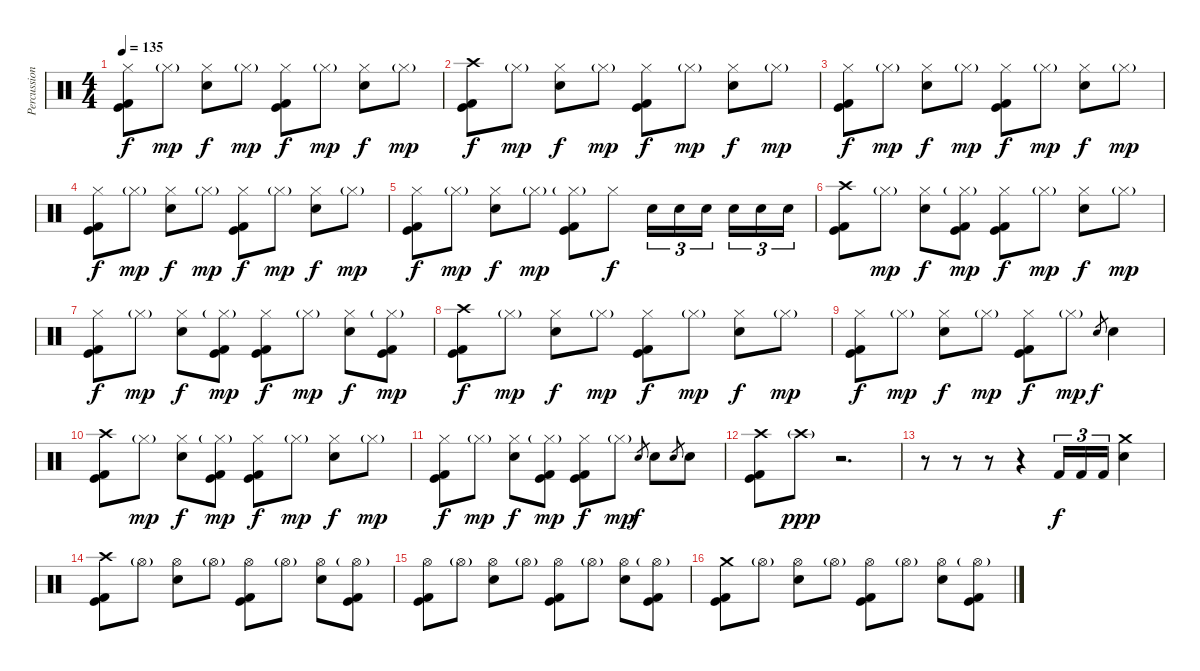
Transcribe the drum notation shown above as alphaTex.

\track ("Percussions" "Percussion") {instrument percussion}
\staff {score}
\articulation defaults
\ts (4 4)
\tempo 135
\clef neutral
\ks c
("Hi-Hat (closed)" "Kick (hit)" "Kick (hit) 2").8{dy f} "Hi-Hat (closed)"{g}.8{dy mp} ("Hi-Hat (closed)" "Electric Snare (hit)").8{dy f} "Hi-Hat (closed)"{g}.8{dy mp} ("Hi-Hat (closed)" "Kick (hit)" "Kick (hit) 2").8{dy f} "Hi-Hat (closed)"{g}.8{dy mp} ("Hi-Hat (closed)" "Electric Snare (hit)").8{dy f} "Hi-Hat (closed)"{g}.8{dy mp} |
("Crash high (hit)" "Kick (hit)" "Kick (hit) 2").8{dy f} "Hi-Hat (closed)"{g}.8{dy mp} ("Hi-Hat (closed)" "Electric Snare (hit)").8{dy f} "Hi-Hat (closed)"{g}.8{dy mp} ("Hi-Hat (closed)" "Kick (hit)" "Kick (hit) 2").8{dy f} "Hi-Hat (closed)"{g}.8{dy mp} ("Hi-Hat (closed)" "Electric Snare (hit)").8{dy f} "Hi-Hat (closed)"{g}.8{dy mp} |
("Hi-Hat (closed)" "Kick (hit)" "Kick (hit) 2").8{dy f} "Hi-Hat (closed)"{g}.8{dy mp} ("Hi-Hat (closed)" "Electric Snare (hit)").8{dy f} "Hi-Hat (closed)"{g}.8{dy mp} ("Hi-Hat (closed)" "Kick (hit)" "Kick (hit) 2").8{dy f} "Hi-Hat (closed)"{g}.8{dy mp} ("Hi-Hat (closed)" "Electric Snare (hit)").8{dy f} "Hi-Hat (closed)"{g}.8{dy mp} |
("Hi-Hat (closed)" "Kick (hit)" "Kick (hit) 2").8{dy f} "Hi-Hat (closed)"{g}.8{dy mp} ("Hi-Hat (closed)" "Electric Snare (hit)").8{dy f} "Hi-Hat (closed)"{g}.8{dy mp} ("Hi-Hat (closed)" "Kick (hit)" "Kick (hit) 2").8{dy f} "Hi-Hat (closed)"{g}.8{dy mp} ("Hi-Hat (closed)" "Electric Snare (hit)").8{dy f} "Hi-Hat (closed)"{g}.8{dy mp} |
("Hi-Hat (closed)" "Kick (hit)" "Kick (hit) 2").8{dy f} "Hi-Hat (closed)"{g}.8{dy mp} ("Hi-Hat (closed)" "Electric Snare (hit)").8{dy f} "Hi-Hat (closed)"{g}.8{dy mp} ("Hi-Hat (closed)"{g} "Kick (hit)" "Kick (hit) 2").8 "Hi-Hat (closed)".8{dy f} "Electric Snare (hit)".16{tu (3 2)} "Electric Snare (hit)".16{tu (3 2)} "Electric Snare (hit)".16{tu (3 2) beam splitsecondary} "Electric Snare (hit)".16{tu (3 2)} "Electric Snare (hit)".16{tu (3 2)} "Electric Snare (hit)".16{tu (3 2)} |
("Crash high (hit)" "Kick (hit)" "Kick (hit) 2").8 "Hi-Hat (closed)"{g}.8{dy mp} ("Hi-Hat (closed)" "Electric Snare (hit)").8{dy f} ("Hi-Hat (closed)"{g} "Kick (hit)" "Kick (hit) 2").8{dy mp} ("Hi-Hat (closed)" "Kick (hit)" "Kick (hit) 2").8{dy f} "Hi-Hat (closed)"{g}.8{dy mp} ("Hi-Hat (closed)" "Electric Snare (hit)").8{dy f} "Hi-Hat (closed)"{g}.8{dy mp} |
("Hi-Hat (closed)" "Kick (hit)" "Kick (hit) 2").8{dy f} "Hi-Hat (closed)"{g}.8{dy mp} ("Hi-Hat (closed)" "Electric Snare (hit)").8{dy f} ("Hi-Hat (closed)"{g} "Kick (hit)" "Kick (hit) 2").8{dy mp} ("Hi-Hat (closed)" "Kick (hit)" "Kick (hit) 2").8{dy f} "Hi-Hat (closed)"{g}.8{dy mp} ("Hi-Hat (closed)" "Electric Snare (hit)").8{dy f} ("Hi-Hat (closed)"{g} "Kick (hit)" "Kick (hit) 2").8{dy mp} |
("Crash high (hit)" "Kick (hit)" "Kick (hit) 2").8{dy f} "Hi-Hat (closed)"{g}.8{dy mp} ("Hi-Hat (closed)" "Electric Snare (hit)").8{dy f} "Hi-Hat (closed)"{g}.8{dy mp} ("Hi-Hat (closed)" "Kick (hit)" "Kick (hit) 2").8{dy f} "Hi-Hat (closed)"{g}.8{dy mp} ("Hi-Hat (closed)" "Electric Snare (hit)").8{dy f} "Hi-Hat (closed)"{g}.8{dy mp} |
("Hi-Hat (closed)" "Kick (hit)" "Kick (hit) 2").8{dy f} "Hi-Hat (closed)"{g}.8{dy mp} ("Hi-Hat (closed)" "Electric Snare (hit)").8{dy f} "Hi-Hat (closed)"{g}.8{dy mp} ("Hi-Hat (closed)" "Kick (hit)" "Kick (hit) 2").8{dy f} "Hi-Hat (closed)"{g}.8{dy mp} "Electric Snare (hit)".8{gr dy f} "Electric Snare (hit)".4 |
("Crash high (hit)" "Kick (hit)" "Kick (hit) 2").8 "Hi-Hat (closed)"{g}.8{dy mp} ("Hi-Hat (closed)" "Electric Snare (hit)").8{dy f} ("Hi-Hat (closed)"{g} "Kick (hit)" "Kick (hit) 2").8{dy mp} ("Hi-Hat (closed)" "Kick (hit)" "Kick (hit) 2").8{dy f} "Hi-Hat (closed)"{g}.8{dy mp} ("Hi-Hat (closed)" "Electric Snare (hit)").8{dy f} "Hi-Hat (closed)"{g}.8{dy mp} |
("Hi-Hat (closed)" "Kick (hit)" "Kick (hit) 2").8{dy f} "Hi-Hat (closed)"{g}.8{dy mp} ("Hi-Hat (closed)" "Electric Snare (hit)").8{dy f} ("Hi-Hat (closed)"{g} "Kick (hit)" "Kick (hit) 2").8{dy mp} ("Hi-Hat (closed)" "Kick (hit)" "Kick (hit) 2").8{dy f} "Hi-Hat (closed)"{g}.8{dy mp} "Electric Snare (hit)".8{gr dy f} "Electric Snare (hit)".8 "Electric Snare (hit)".8{gr} "Electric Snare (hit)".8 |
("Crash high (hit)" "Kick (hit)" "Kick (hit) 2").8 "Crash high (hit)"{g}.8{dy ppp} r.2{d} |
r.8 r.8 r.8 r.4 "Kick (hit) 2".16{tu (3 2) dy f} "Kick (hit) 2".16{tu (3 2)} "Kick (hit) 2".16{tu (3 2)} ("Crash medium (hit)" "Electric Snare (hit)").4 |
("Crash high (hit)" "Kick (hit)" "Kick (hit) 2").8 "Hi-Hat (open)"{g}.8 ("Hi-Hat (open)" "Electric Snare (hit)").8 "Hi-Hat (open)"{g}.8 ("Hi-Hat (open)" "Kick (hit)" "Kick (hit) 2").8 "Hi-Hat (open)"{g}.8 ("Hi-Hat (open)" "Electric Snare (hit)").8 ("Hi-Hat (open)"{g} "Kick (hit)" "Kick (hit) 2").8 |
("Hi-Hat (open)" "Kick (hit)" "Kick (hit) 2").8 "Hi-Hat (open)"{g}.8 ("Hi-Hat (open)" "Electric Snare (hit)").8 "Hi-Hat (open)"{g}.8 ("Hi-Hat (open)" "Kick (hit)" "Kick (hit) 2").8 "Hi-Hat (open)"{g}.8 ("Hi-Hat (open)" "Electric Snare (hit)").8 ("Hi-Hat (open)"{g} "Kick (hit)" "Kick (hit) 2").8 |
("Crash medium (hit)" "Kick (hit)" "Kick (hit) 2").8 "Hi-Hat (open)"{g}.8 ("Hi-Hat (open)" "Electric Snare (hit)").8 "Hi-Hat (open)"{g}.8 ("Hi-Hat (open)" "Kick (hit)" "Kick (hit) 2").8 "Hi-Hat (open)"{g}.8 ("Hi-Hat (open)" "Electric Snare (hit)").8 ("Hi-Hat (open)"{g} "Kick (hit)" "Kick (hit) 2").8
